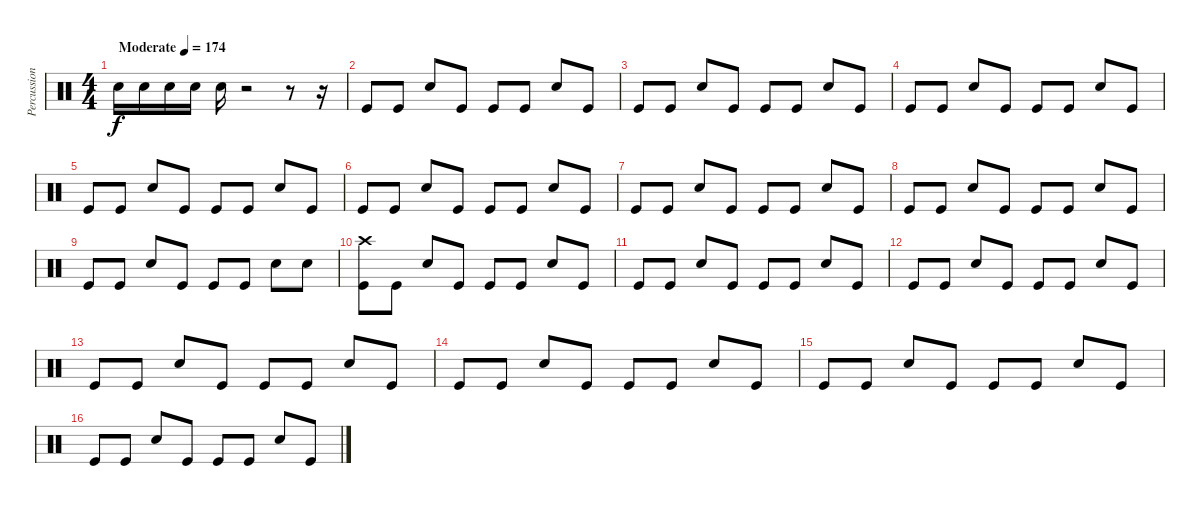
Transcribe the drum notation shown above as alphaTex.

\track ("Percussion" "Percussion") {instrument percussion}
\staff {score}
\articulation defaults
\ts (4 4)
\tempo (174 "Moderate")
\clef neutral
\ks c "Electric Snare (hit)".16{dy f} "Electric Snare (hit)".16 "Electric Snare (hit)".16 "Electric Snare (hit)".16 "Electric Snare (hit)".16
r.2 r.8 r.16 |
"Kick (hit)".8 "Kick (hit)".8 "Electric Snare (hit)".8 "Kick (hit)".8 "Kick (hit)".8 "Kick (hit)".8 "Electric Snare (hit)".8 "Kick (hit)".8 |
"Kick (hit)".8 "Kick (hit)".8 "Electric Snare (hit)".8 "Kick (hit)".8 "Kick (hit)".8 "Kick (hit)".8 "Electric Snare (hit)".8 "Kick (hit)".8 |
"Kick (hit)".8 "Kick (hit)".8 "Electric Snare (hit)".8 "Kick (hit)".8 "Kick (hit)".8 "Kick (hit)".8 "Electric Snare (hit)".8 "Kick (hit)".8 |
"Kick (hit)".8 "Kick (hit)".8 "Electric Snare (hit)".8 "Kick (hit)".8 "Kick (hit)".8 "Kick (hit)".8 "Electric Snare (hit)".8 "Kick (hit)".8 |
"Kick (hit)".8 "Kick (hit)".8 "Electric Snare (hit)".8 "Kick (hit)".8 "Kick (hit)".8 "Kick (hit)".8 "Electric Snare (hit)".8 "Kick (hit)".8 |
"Kick (hit)".8 "Kick (hit)".8 "Electric Snare (hit)".8 "Kick (hit)".8 "Kick (hit)".8 "Kick (hit)".8 "Electric Snare (hit)".8 "Kick (hit)".8 |
"Kick (hit)".8 "Kick (hit)".8 "Electric Snare (hit)".8 "Kick (hit)".8 "Kick (hit)".8 "Kick (hit)".8 "Electric Snare (hit)".8 "Kick (hit)".8 |
"Kick (hit)".8 "Kick (hit)".8 "Electric Snare (hit)".8 "Kick (hit)".8 "Kick (hit)".8 "Kick (hit)".8 "Electric Snare (hit)".8 "Electric Snare (hit)".8 |
("Crash high (hit)" "Kick (hit)").8 "Kick (hit)".8 "Electric Snare (hit)".8 "Kick (hit)".8 "Kick (hit)".8 "Kick (hit)".8 "Electric Snare (hit)".8 "Kick (hit)".8 |
"Kick (hit)".8 "Kick (hit)".8 "Electric Snare (hit)".8 "Kick (hit)".8 "Kick (hit)".8 "Kick (hit)".8 "Electric Snare (hit)".8 "Kick (hit)".8 |
"Kick (hit)".8 "Kick (hit)".8 "Electric Snare (hit)".8 "Kick (hit)".8 "Kick (hit)".8 "Kick (hit)".8 "Electric Snare (hit)".8 "Kick (hit)".8 |
"Kick (hit)".8 "Kick (hit)".8 "Electric Snare (hit)".8 "Kick (hit)".8 "Kick (hit)".8 "Kick (hit)".8 "Electric Snare (hit)".8 "Kick (hit)".8 |
"Kick (hit)".8 "Kick (hit)".8 "Electric Snare (hit)".8 "Kick (hit)".8 "Kick (hit)".8 "Kick (hit)".8 "Electric Snare (hit)".8 "Kick (hit)".8 |
"Kick (hit)".8 "Kick (hit)".8 "Electric Snare (hit)".8 "Kick (hit)".8 "Kick (hit)".8 "Kick (hit)".8 "Electric Snare (hit)".8 "Kick (hit)".8 |
"Kick (hit)".8 "Kick (hit)".8 "Electric Snare (hit)".8 "Kick (hit)".8 "Kick (hit)".8 "Kick (hit)".8 "Electric Snare (hit)".8 "Kick (hit)".8
